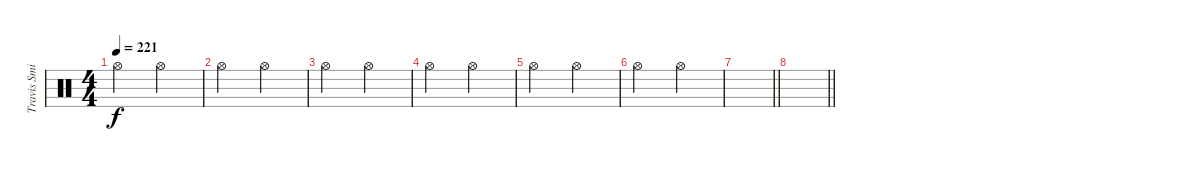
\track ("Travis Smith" "Travis Smi") {instrument percussion}
\staff {score}
\articulation defaults
\ts (4 4)
\tempo 221
\clef neutral
\ks c "Hi-Hat (open)".2{dy f} "Hi-Hat (open)".2
|
"Hi-Hat (open)".2 "Hi-Hat (open)".2 |
"Hi-Hat (open)".2 "Hi-Hat (open)".2 |
"Hi-Hat (open)".2 "Hi-Hat (open)".2 |
"Hi-Hat (open)".2 "Hi-Hat (open)".2 |
"Hi-Hat (open)".2 "Hi-Hat (open)".2 |
\barLineRight lightlight
|
\barLineRight lightlight
